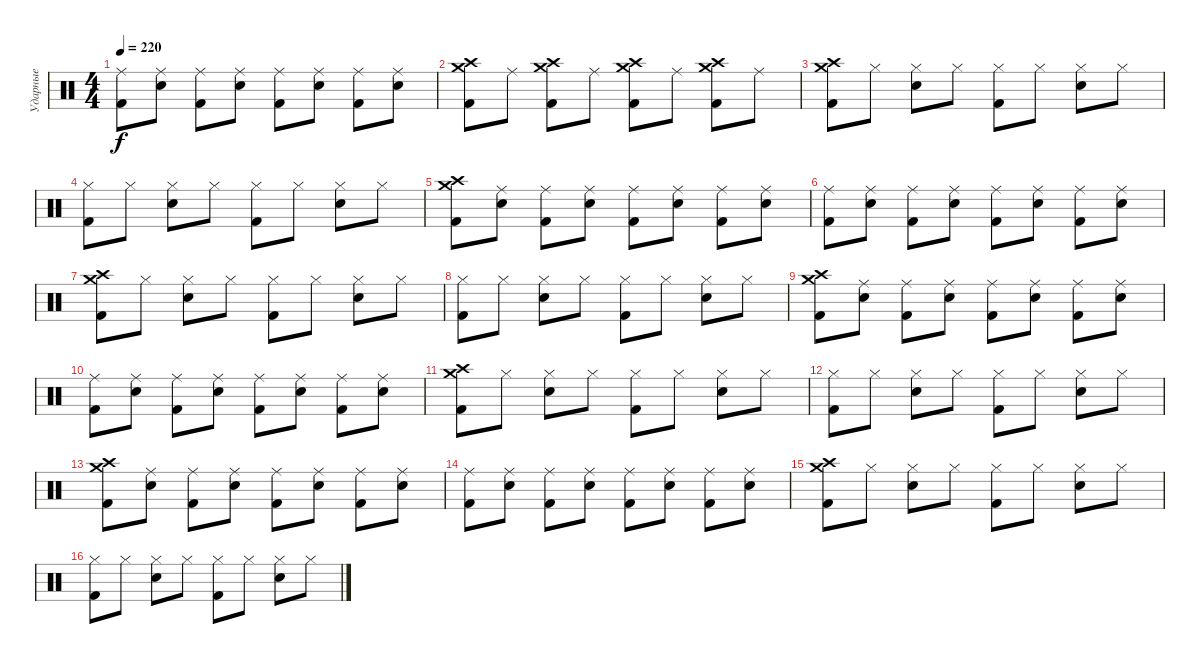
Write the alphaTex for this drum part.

\track ("Ударные" "Ударные") {instrument percussion}
\staff {score}
\articulation defaults
\ts (4 4)
\tempo 220
\clef neutral
\ks c
("Ride (middle)" "Kick (hit) 2").8{dy f} ("Ride (middle)" "Snare (hit) 2").8 ("Ride (middle)" "Kick (hit) 2").8 ("Ride (middle)" "Snare (hit) 2").8 ("Ride (middle)" "Kick (hit) 2").8 ("Ride (middle)" "Snare (hit) 2").8 ("Ride (middle)" "Kick (hit) 2").8 ("Ride (middle)" "Snare (hit) 2").8 |
("Crash high (hit)" "Crash medium (hit)" "Kick (hit) 2").8 "Ride (middle)".8 ("Crash high (hit)" "Crash medium (hit)" "Kick (hit) 2").8 "Ride (middle)".8 ("Crash high (hit)" "Crash medium (hit)" "Kick (hit) 2").8 "Ride (middle)".8 ("Crash high (hit)" "Crash medium (hit)" "Kick (hit) 2").8 "Ride (middle)".8 |
("Crash high (hit)" "Crash medium (hit)" "Kick (hit) 2").8 "Hi-Hat (closed)".8 ("Hi-Hat (closed)" "Snare (hit) 2").8 "Hi-Hat (closed)".8 ("Hi-Hat (closed)" "Kick (hit) 2").8 "Hi-Hat (closed)".8 ("Hi-Hat (closed)" "Snare (hit) 2").8 "Hi-Hat (closed)".8 |
("Hi-Hat (closed)" "Kick (hit) 2").8 "Hi-Hat (closed)".8 ("Hi-Hat (closed)" "Snare (hit) 2").8 "Hi-Hat (closed)".8 ("Hi-Hat (closed)" "Kick (hit) 2").8 "Hi-Hat (closed)".8 ("Hi-Hat (closed)" "Snare (hit) 2").8 "Hi-Hat (closed)".8 |
("Crash high (hit)" "Crash medium (hit)" "Kick (hit) 2").8 ("Ride (middle)" "Snare (hit) 2").8 ("Ride (middle)" "Kick (hit) 2").8 ("Ride (middle)" "Snare (hit) 2").8 ("Ride (middle)" "Kick (hit) 2").8 ("Ride (middle)" "Snare (hit) 2").8 ("Ride (middle)" "Kick (hit) 2").8 ("Ride (middle)" "Snare (hit) 2").8 |
("Ride (middle)" "Kick (hit) 2").8 ("Ride (middle)" "Snare (hit) 2").8 ("Ride (middle)" "Kick (hit) 2").8 ("Ride (middle)" "Snare (hit) 2").8 ("Ride (middle)" "Kick (hit) 2").8 ("Ride (middle)" "Snare (hit) 2").8 ("Ride (middle)" "Kick (hit) 2").8 ("Ride (middle)" "Snare (hit) 2").8 |
("Crash high (hit)" "Crash medium (hit)" "Kick (hit) 2").8 "Hi-Hat (closed)".8 ("Hi-Hat (closed)" "Snare (hit) 2").8 "Hi-Hat (closed)".8 ("Hi-Hat (closed)" "Kick (hit) 2").8 "Hi-Hat (closed)".8 ("Hi-Hat (closed)" "Snare (hit) 2").8 "Hi-Hat (closed)".8 |
("Hi-Hat (closed)" "Kick (hit) 2").8 "Hi-Hat (closed)".8 ("Hi-Hat (closed)" "Snare (hit) 2").8 "Hi-Hat (closed)".8 ("Hi-Hat (closed)" "Kick (hit) 2").8 "Hi-Hat (closed)".8 ("Hi-Hat (closed)" "Snare (hit) 2").8 "Hi-Hat (closed)".8 |
("Crash high (hit)" "Crash medium (hit)" "Kick (hit) 2").8 ("Ride (middle)" "Snare (hit) 2").8 ("Ride (middle)" "Kick (hit) 2").8 ("Ride (middle)" "Snare (hit) 2").8 ("Ride (middle)" "Kick (hit) 2").8 ("Ride (middle)" "Snare (hit) 2").8 ("Ride (middle)" "Kick (hit) 2").8 ("Ride (middle)" "Snare (hit) 2").8 |
("Ride (middle)" "Kick (hit) 2").8 ("Ride (middle)" "Snare (hit) 2").8 ("Ride (middle)" "Kick (hit) 2").8 ("Ride (middle)" "Snare (hit) 2").8 ("Ride (middle)" "Kick (hit) 2").8 ("Ride (middle)" "Snare (hit) 2").8 ("Ride (middle)" "Kick (hit) 2").8 ("Ride (middle)" "Snare (hit) 2").8 |
("Crash high (hit)" "Crash medium (hit)" "Kick (hit) 2").8 "Hi-Hat (closed)".8 ("Hi-Hat (closed)" "Snare (hit) 2").8 "Hi-Hat (closed)".8 ("Hi-Hat (closed)" "Kick (hit) 2").8 "Hi-Hat (closed)".8 ("Hi-Hat (closed)" "Snare (hit) 2").8 "Hi-Hat (closed)".8 |
("Hi-Hat (closed)" "Kick (hit) 2").8 "Hi-Hat (closed)".8 ("Hi-Hat (closed)" "Snare (hit) 2").8 "Hi-Hat (closed)".8 ("Hi-Hat (closed)" "Kick (hit) 2").8 "Hi-Hat (closed)".8 ("Hi-Hat (closed)" "Snare (hit) 2").8 "Hi-Hat (closed)".8 |
("Crash high (hit)" "Crash medium (hit)" "Kick (hit) 2").8 ("Ride (middle)" "Snare (hit) 2").8 ("Ride (middle)" "Kick (hit) 2").8 ("Ride (middle)" "Snare (hit) 2").8 ("Ride (middle)" "Kick (hit) 2").8 ("Ride (middle)" "Snare (hit) 2").8 ("Ride (middle)" "Kick (hit) 2").8 ("Ride (middle)" "Snare (hit) 2").8 |
("Ride (middle)" "Kick (hit) 2").8 ("Ride (middle)" "Snare (hit) 2").8 ("Ride (middle)" "Kick (hit) 2").8 ("Ride (middle)" "Snare (hit) 2").8 ("Ride (middle)" "Kick (hit) 2").8 ("Ride (middle)" "Snare (hit) 2").8 ("Ride (middle)" "Kick (hit) 2").8 ("Ride (middle)" "Snare (hit) 2").8 |
("Crash high (hit)" "Crash medium (hit)" "Kick (hit) 2").8 "Hi-Hat (closed)".8 ("Hi-Hat (closed)" "Snare (hit) 2").8 "Hi-Hat (closed)".8 ("Hi-Hat (closed)" "Kick (hit) 2").8 "Hi-Hat (closed)".8 ("Hi-Hat (closed)" "Snare (hit) 2").8 "Hi-Hat (closed)".8 |
("Hi-Hat (closed)" "Kick (hit) 2").8 "Hi-Hat (closed)".8 ("Hi-Hat (closed)" "Snare (hit) 2").8 "Hi-Hat (closed)".8 ("Hi-Hat (closed)" "Kick (hit) 2").8 "Hi-Hat (closed)".8 ("Hi-Hat (closed)" "Snare (hit) 2").8 "Hi-Hat (closed)".8
